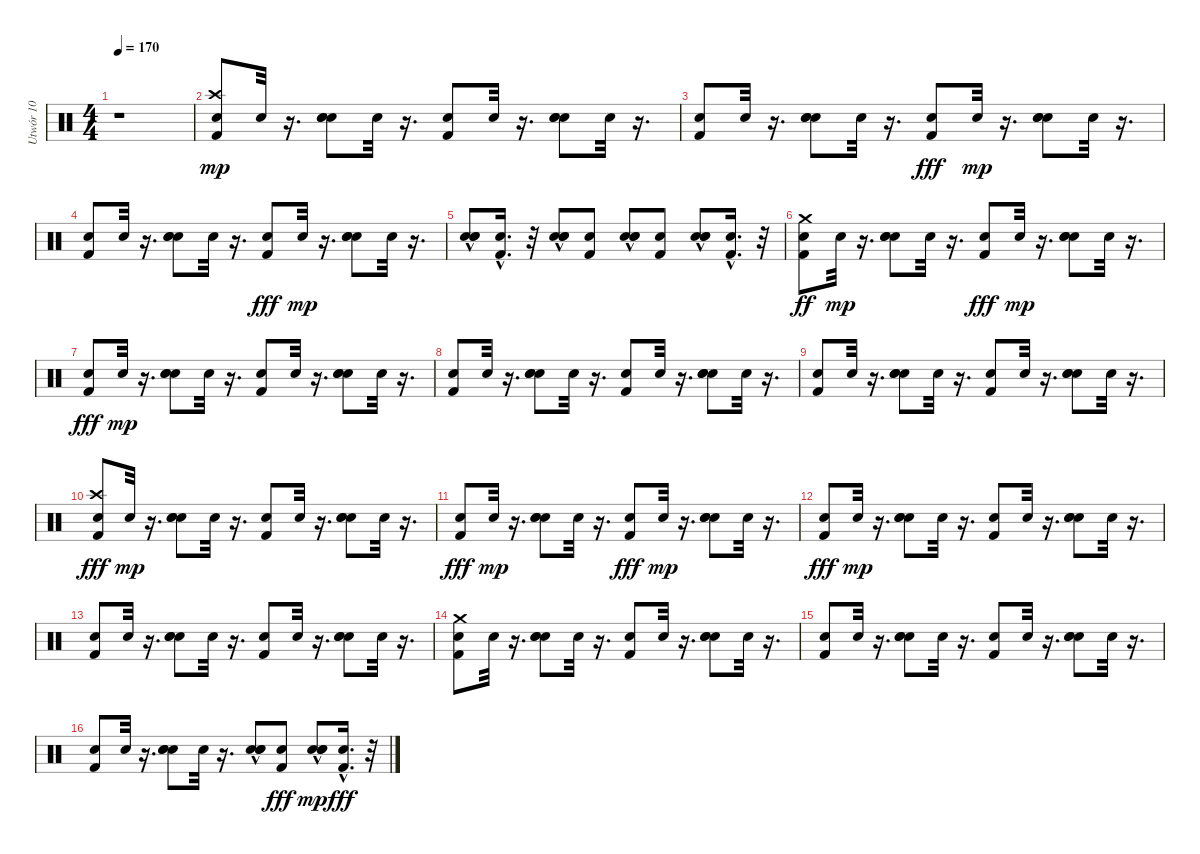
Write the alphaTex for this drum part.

\track ("Utwór 10" "Utwór 10") {instrument percussion}
\staff {score}
\articulation defaults
\ts (4 4)
\tempo 170
\clef neutral
\ks c
r.1{dy mp} |
("Kick (hit) 2" "Crash high (hit)" "Snare (hit) 2").8{volume 11 balance 8} "Snare (hit) 2".32 r.16{d} ("Snare (hit) 2" "Snare (hit) 2" "Snare (hit) 2").8 "Snare (hit) 2".32 r.16{d} ("Kick (hit) 2" "Snare (hit) 2").8 "Snare (hit) 2".32 r.16{d} ("Snare (hit) 2" "Snare (hit) 2" "Snare (hit) 2").8 "Snare (hit) 2".32 r.16{d} |
("Kick (hit) 2" "Snare (hit) 2").8 "Snare (hit) 2".32 r.16{d} ("Snare (hit) 2" "Snare (hit) 2" "Snare (hit) 2").8 "Snare (hit) 2".32 r.16{d} ("Snare (hit) 2" "Kick (hit) 2").8{dy fff} "Snare (hit) 2".32{dy mp} r.16{d} ("Snare (hit) 2" "Snare (hit) 2" "Snare (hit) 2").8 "Snare (hit) 2".32 r.16{d} |
("Kick (hit) 2" "Snare (hit) 2").8 "Snare (hit) 2".32 r.16{d} ("Snare (hit) 2" "Snare (hit) 2" "Snare (hit) 2").8 "Snare (hit) 2".32 r.16{d} ("Snare (hit) 2" "Kick (hit) 2").8{dy fff} "Snare (hit) 2".32{dy mp} r.16{d} ("Snare (hit) 2" "Snare (hit) 2" "Snare (hit) 2").8 "Snare (hit) 2".32 r.16{d} |
("Snare (hit) 2" "Snare (hit) 2" "Snare (hit) 2"{hac}).8 ("Kick (hit) 2"{hac} "Snare (hit) 2").16{d} r.32 ("Snare (hit) 2" "Snare (hit) 2" "Snare (hit) 2"{hac}).8 ("Kick (hit) 2" "Snare (hit) 2").8 ("Snare (hit) 2" "Snare (hit) 2" "Snare (hit) 2"{hac}).8 ("Kick (hit) 2" "Snare (hit) 2").8 ("Snare (hit) 2" "Snare (hit) 2" "Snare (hit) 2"{hac}).8 ("Kick (hit) 2"{hac} "Snare (hit) 2").16{d} r.32 |
("Snare (hit) 2" "Kick (hit) 2" "Crash medium (hit)").8{dy ff} "Snare (hit) 2".32{dy mp} r.16{d} ("Snare (hit) 2" "Snare (hit) 2" "Snare (hit) 2").8 "Snare (hit) 2".32 r.16{d} ("Snare (hit) 2" "Kick (hit) 2").8{dy fff} "Snare (hit) 2".32{dy mp} r.16{d} ("Snare (hit) 2" "Snare (hit) 2" "Snare (hit) 2").8 "Snare (hit) 2".32 r.16{d} |
("Snare (hit) 2" "Kick (hit) 2").8{dy fff} "Snare (hit) 2".32{dy mp} r.16{d} ("Snare (hit) 2" "Snare (hit) 2" "Snare (hit) 2").8 "Snare (hit) 2".32 r.16{d} ("Kick (hit) 2" "Snare (hit) 2").8 "Snare (hit) 2".32 r.16{d} ("Snare (hit) 2" "Snare (hit) 2" "Snare (hit) 2").8 "Snare (hit) 2".32 r.16{d} |
("Kick (hit) 2" "Snare (hit) 2").8 "Snare (hit) 2".32 r.16{d} ("Snare (hit) 2" "Snare (hit) 2" "Snare (hit) 2").8 "Snare (hit) 2".32 r.16{d} ("Kick (hit) 2" "Snare (hit) 2").8 "Snare (hit) 2".32 r.16{d} ("Snare (hit) 2" "Snare (hit) 2" "Snare (hit) 2").8 "Snare (hit) 2".32 r.16{d} |
("Kick (hit) 2" "Snare (hit) 2").8 "Snare (hit) 2".32 r.16{d} ("Snare (hit) 2" "Snare (hit) 2" "Snare (hit) 2").8 "Snare (hit) 2".32 r.16{d} ("Kick (hit) 2" "Snare (hit) 2").8 "Snare (hit) 2".32 r.16{d} ("Snare (hit) 2" "Snare (hit) 2" "Snare (hit) 2").8 "Snare (hit) 2".32 r.16{d} |
("Snare (hit) 2" "Crash high (hit)" "Kick (hit) 2").8{dy fff} "Snare (hit) 2".32{dy mp} r.16{d} ("Snare (hit) 2" "Snare (hit) 2" "Snare (hit) 2").8 "Snare (hit) 2".32 r.16{d} ("Kick (hit) 2" "Snare (hit) 2").8 "Snare (hit) 2".32 r.16{d} ("Snare (hit) 2" "Snare (hit) 2" "Snare (hit) 2").8 "Snare (hit) 2".32 r.16{d} |
("Snare (hit) 2" "Kick (hit) 2").8{dy fff} "Snare (hit) 2".32{dy mp} r.16{d} ("Snare (hit) 2" "Snare (hit) 2" "Snare (hit) 2").8 "Snare (hit) 2".32 r.16{d} ("Snare (hit) 2" "Kick (hit) 2").8{dy fff} "Snare (hit) 2".32{dy mp} r.16{d} ("Snare (hit) 2" "Snare (hit) 2" "Snare (hit) 2").8 "Snare (hit) 2".32 r.16{d} |
("Snare (hit) 2" "Kick (hit) 2").8{dy fff} "Snare (hit) 2".32{dy mp} r.16{d} ("Snare (hit) 2" "Snare (hit) 2" "Snare (hit) 2").8 "Snare (hit) 2".32 r.16{d} ("Kick (hit) 2" "Snare (hit) 2").8 "Snare (hit) 2".32 r.16{d} ("Snare (hit) 2" "Snare (hit) 2" "Snare (hit) 2").8 "Snare (hit) 2".32 r.16{d} |
("Kick (hit) 2" "Snare (hit) 2").8 "Snare (hit) 2".32 r.16{d} ("Snare (hit) 2" "Snare (hit) 2" "Snare (hit) 2").8 "Snare (hit) 2".32 r.16{d} ("Kick (hit) 2" "Snare (hit) 2").8 "Snare (hit) 2".32 r.16{d} ("Snare (hit) 2" "Snare (hit) 2" "Snare (hit) 2").8 "Snare (hit) 2".32 r.16{d} |
("Crash medium (hit)" "Kick (hit) 2" "Snare (hit) 2").8 "Snare (hit) 2".32 r.16{d} ("Snare (hit) 2" "Snare (hit) 2" "Snare (hit) 2").8 "Snare (hit) 2".32 r.16{d} ("Kick (hit) 2" "Snare (hit) 2").8 "Snare (hit) 2".32 r.16{d} ("Snare (hit) 2" "Snare (hit) 2" "Snare (hit) 2").8 "Snare (hit) 2".32 r.16{d} |
("Kick (hit) 2" "Snare (hit) 2").8 "Snare (hit) 2".32 r.16{d} ("Snare (hit) 2" "Snare (hit) 2" "Snare (hit) 2").8 "Snare (hit) 2".32 r.16{d} ("Kick (hit) 2" "Snare (hit) 2").8 "Snare (hit) 2".32 r.16{d} ("Snare (hit) 2" "Snare (hit) 2" "Snare (hit) 2").8 "Snare (hit) 2".32 r.16{d} |
("Kick (hit) 2" "Snare (hit) 2").8 "Snare (hit) 2".32 r.16{d} ("Snare (hit) 2" "Snare (hit) 2" "Snare (hit) 2").8 "Snare (hit) 2".32 r.16{d} ("Snare (hit) 2" "Snare (hit) 2" "Snare (hit) 2"{hac}).8 ("Snare (hit) 2" "Kick (hit) 2").8{dy fff} ("Snare (hit) 2" "Snare (hit) 2" "Snare (hit) 2"{hac}).8{dy mp} ("Snare (hit) 2" "Kick (hit) 2"{hac}).16{d dy fff} r.32
